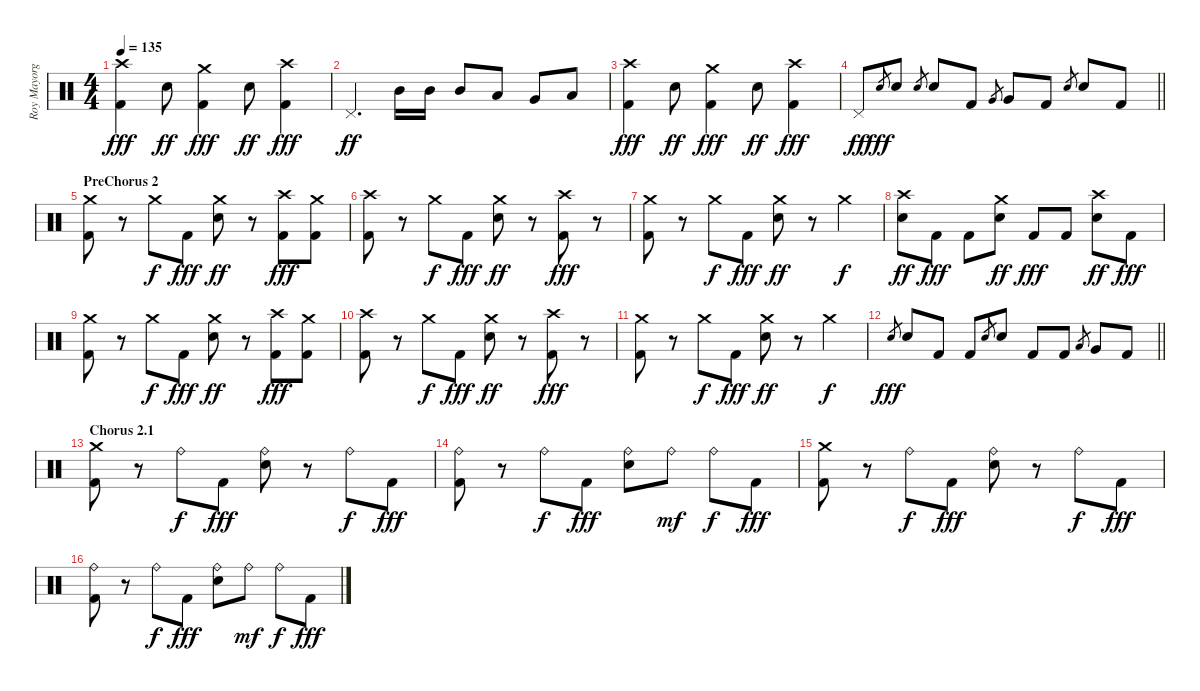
\track ("Roy Mayorga" "Roy Mayorg") {instrument percussion}
\staff {score}
\articulation defaults
\ts (4 4)
\tempo 135
\clef neutral
\ks c
("Crash high (hit)" "Kick (hit) 2").4{dy fff} "Electric Snare (hit)".8{dy ff} ("Crash medium (hit)" "Kick (hit) 2").4{dy fff} "Electric Snare (hit)".8{dy ff} ("Crash high (hit)" "Kick (hit) 2").4{dy fff} |
"Pedal Hi-Hat (hit)".4{d dy ff} "Mid Tom (hit)".16 "Mid Tom (hit)".16 "Mid Tom (hit)".8 "Low Tom (hit)".8 "Very Low Tom (hit)".8 "Low Floor Tom (hit)".8 |
("Crash high (hit)" "Kick (hit) 2").4{dy fff} "Electric Snare (hit)".8{dy ff} ("Crash medium (hit)" "Kick (hit) 2").4{dy fff} "Electric Snare (hit)".8{dy ff} ("Crash high (hit)" "Kick (hit) 2").4{dy fff} |
\barLineRight lightlight "Pedal Hi-Hat (hit)".8{dy ff} "Electric Snare (hit)".8{gr dy fff} "Electric Snare (hit)".8 "Electric Snare (hit)".8{gr} "Electric Snare (hit)".8 "Kick (hit) 2".8 "Very Low Tom (hit)".8{gr} "Very Low Tom (hit)".8 "Kick (hit) 2".8 "Electric Snare (hit)".8{gr} "Electric Snare (hit)".8 "Kick (hit) 2".8
|
\section ("" "PreChorus 2")
("Crash medium (hit)" "Kick (hit) 2").8 r.8 "Crash medium (hit)".8{dy f} "Kick (hit) 2".8{dy fff} ("Crash medium (hit)" "Electric Snare (hit)").8{dy ff} r.8 ("Crash high (hit)" "Kick (hit) 2").8{dy fff} ("Crash medium (hit)" "Kick (hit) 2").8 |
("Crash high (hit)" "Kick (hit) 2").8 r.8 "Crash medium (hit)".8{dy f} "Kick (hit) 2".8{dy fff} ("Crash medium (hit)" "Electric Snare (hit)").8{dy ff} r.8 ("Crash high (hit)" "Kick (hit) 2").8{dy fff} r.8 |
("Crash medium (hit)" "Kick (hit) 2").8 r.8 "Crash medium (hit)".8{dy f} "Kick (hit) 2".8{dy fff} ("Crash medium (hit)" "Electric Snare (hit)").8{dy ff} r.8 "Crash medium (hit)".4{dy f} |
("Crash high (hit)" "Electric Snare (hit)").8{dy ff} "Kick (hit) 2".8{dy fff} "Kick (hit) 2".8 ("Crash medium (hit)" "Electric Snare (hit)").8{dy ff} "Kick (hit) 2".8{dy fff} "Kick (hit) 2".8 ("Crash high (hit)" "Electric Snare (hit)").8{dy ff} "Kick (hit) 2".8{dy fff} |
("Crash medium (hit)" "Kick (hit) 2").8 r.8 "Crash medium (hit)".8{dy f} "Kick (hit) 2".8{dy fff} ("Crash medium (hit)" "Electric Snare (hit)").8{dy ff} r.8 ("Crash high (hit)" "Kick (hit) 2").8{dy fff} ("Crash medium (hit)" "Kick (hit) 2").8 |
("Crash high (hit)" "Kick (hit) 2").8 r.8 "Crash medium (hit)".8{dy f} "Kick (hit) 2".8{dy fff} ("Crash medium (hit)" "Electric Snare (hit)").8{dy ff} r.8 ("Crash high (hit)" "Kick (hit) 2").8{dy fff} r.8 |
("Crash medium (hit)" "Kick (hit) 2").8 r.8 "Crash medium (hit)".8{dy f} "Kick (hit) 2".8{dy fff} ("Crash medium (hit)" "Electric Snare (hit)").8{dy ff} r.8 "Crash medium (hit)".4{dy f} |
\barLineRight lightlight "Electric Snare (hit)".8{gr dy fff} "Electric Snare (hit)".8 "Kick (hit) 2".8 "Kick (hit) 2".8 "Electric Snare (hit)".8{gr} "Electric Snare (hit)".8 "Kick (hit) 2".8 "Kick (hit) 2".8 "Low Floor Tom (hit)".8{gr} "Very Low Tom (hit)".8 "Kick (hit) 2".8
|
\section ("" "Chorus 2.1")
("Crash medium (hit)" "Kick (hit) 2").8 r.8 "Ride (bell)".8{dy f} "Kick (hit) 2".8{dy fff} ("Ride (bell)" "Electric Snare (hit)").8 r.8 "Ride (bell)".8{dy f} "Kick (hit) 2".8{dy fff} |
("Ride (bell)" "Kick (hit) 2").8 r.8 "Ride (bell)".8{dy f} "Kick (hit) 2".8{dy fff} ("Ride (bell)" "Electric Snare (hit)").8 "Ride (bell)".8{dy mf} "Ride (bell)".8{dy f} "Kick (hit) 2".8{dy fff} |
("Crash medium (hit)" "Kick (hit) 2").8 r.8 "Ride (bell)".8{dy f} "Kick (hit) 2".8{dy fff} ("Ride (bell)" "Electric Snare (hit)").8 r.8 "Ride (bell)".8{dy f} "Kick (hit) 2".8{dy fff} |
("Ride (bell)" "Kick (hit) 2").8 r.8 "Ride (bell)".8{dy f} "Kick (hit) 2".8{dy fff} ("Ride (bell)" "Electric Snare (hit)").8 "Ride (bell)".8{dy mf} "Ride (bell)".8{dy f} "Kick (hit) 2".8{dy fff}
